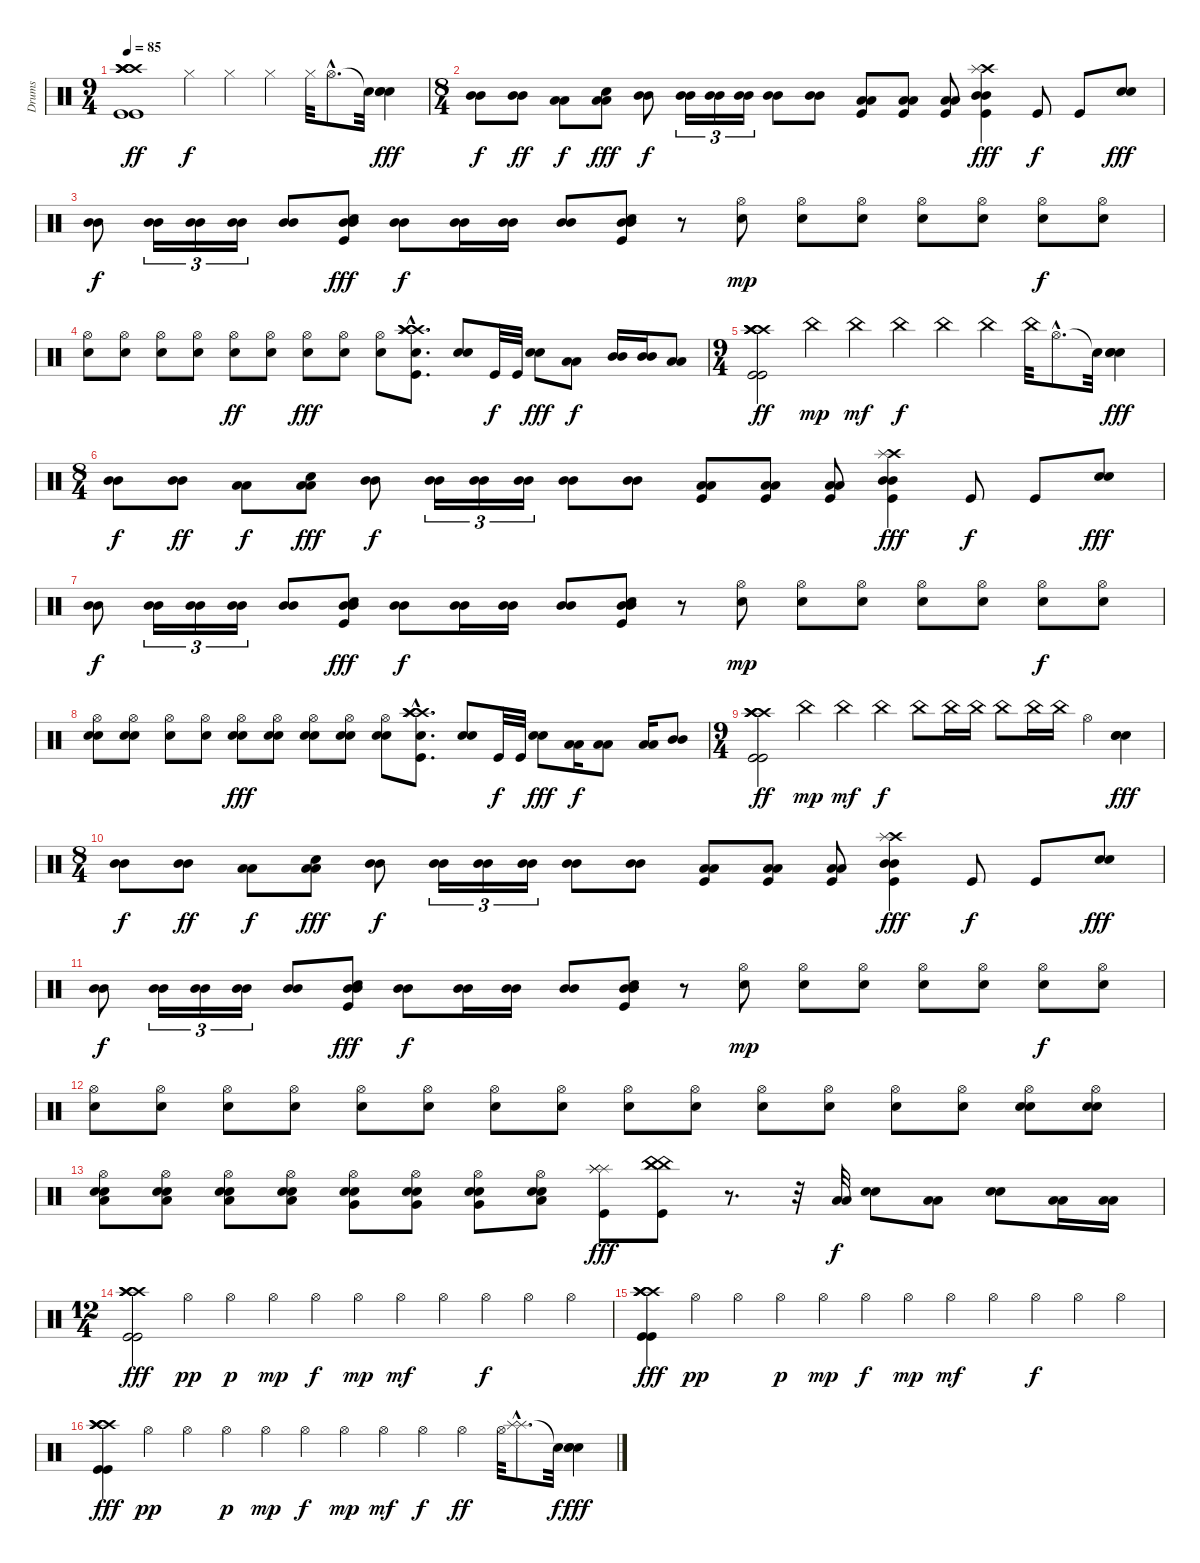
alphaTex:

\track ("Drums" "Drums") {instrument percussion}
\staff {score}
\articulation defaults
\ts (9 4)
\tempo 85
\clef neutral
\ks c
("Crash high (hit)" "Crash high (hit)" "Crash high (hit)" "Crash high (hit)" "Kick (hit)" "Kick (hit)").1{dy ff} "Hi-Hat (closed)".4{dy f} "Hi-Hat (closed)".4 "Hi-Hat (closed)".4 "Hi-Hat (closed)".32 "Hi-Hat (open)"{hac}.8{d} "Snare (hit)"{t}.32 ("Snare (hit) 2" "Electric Snare (hit)" "Electric Snare (hit)").4{dy fff} |
\ts (8 4)
("Mid Tom (hit)" "Mid Tom (hit)").8{dy f} ("Mid Tom (hit)" "Mid Tom (hit)").8{dy ff} ("Low Floor Tom (hit)" "Low Floor Tom (hit)").8{dy f} ("Low Floor Tom (hit)" "Low Floor Tom (hit)" "Electric Snare (hit)").8{dy fff} ("Mid Tom (hit)" "Mid Tom (hit)").8{dy f} ("Mid Tom (hit)" "Mid Tom (hit)").16{tu (3 2)} ("Mid Tom (hit)" "Mid Tom (hit)").16{tu (3 2)} ("Mid Tom (hit)" "Mid Tom (hit)").16{tu (3 2)} ("Mid Tom (hit)" "Mid Tom (hit)").8 ("Mid Tom (hit)" "Mid Tom (hit)").8 ("Low Floor Tom (hit)" "Low Floor Tom (hit)" "Kick (hit)").8 ("Low Floor Tom (hit)" "Low Floor Tom (hit)" "Kick (hit)").8 ("Low Floor Tom (hit)" "Low Floor Tom (hit)" "Kick (hit)").8 ("Mid Tom (hit)" "Mid Tom (hit)" "Crash high (hit)" "Splash (hit)" "Kick (hit)").4{dy fff} "Kick (hit)".8{dy f} "Kick (hit)".8 ("Electric Snare (hit)" "Electric Snare (hit)").8{dy fff} |
("Mid Tom (hit)" "Mid Tom (hit)").8{dy f} ("Mid Tom (hit)" "Mid Tom (hit)").16{tu (3 2)} ("Mid Tom (hit)" "Mid Tom (hit)").16{tu (3 2)} ("Mid Tom (hit)" "Mid Tom (hit)").16{tu (3 2)} ("Mid Tom (hit)" "Mid Tom (hit)").8 ("Mid Tom (hit)" "Mid Tom (hit)" "Electric Snare (hit)" "Kick (hit)").8{dy fff} ("Mid Tom (hit)" "Mid Tom (hit)").8{dy f} ("Mid Tom (hit)" "Mid Tom (hit)").16 ("Mid Tom (hit)" "Mid Tom (hit)").16 ("Mid Tom (hit)" "Mid Tom (hit)").8 ("Mid Tom (hit)" "Mid Tom (hit)" "Electric Snare (hit)" "Kick (hit)").8 r.8{volume 0} ("Hi-Hat (open)" "Electric Snare (hit)").8{dy mp volume 8} ("Hi-Hat (open)" "Electric Snare (hit)").8 ("Hi-Hat (open)" "Electric Snare (hit)").8 ("Hi-Hat (open)" "Electric Snare (hit)").8 ("Hi-Hat (open)" "Electric Snare (hit)").8 ("Hi-Hat (open)" "Electric Snare (hit)").8{dy f} ("Hi-Hat (open)" "Electric Snare (hit)").8 |
("Hi-Hat (open)" "Electric Snare (hit)").8{volume 16} ("Hi-Hat (open)" "Electric Snare (hit)").8 ("Hi-Hat (open)" "Electric Snare (hit)").8 ("Hi-Hat (open)" "Electric Snare (hit)").8 ("Hi-Hat (open)" "Electric Snare (hit)").8{dy ff} ("Hi-Hat (open)" "Electric Snare (hit)").8 ("Hi-Hat (open)" "Electric Snare (hit)").8{dy fff} ("Hi-Hat (open)" "Electric Snare (hit)").8 ("Hi-Hat (open)" "Electric Snare (hit)").8 ("Crash high (hit)"{hac} "Crash high (hit)"{hac} "Crash high (hit)"{hac} "Splash (hit)"{hac} "Electric Snare (hit)"{hac} "Kick (hit)"{hac}).8{d volume 16} ("Electric Snare (hit)" "Electric Snare (hit)").8{volume 13} "Kick (hit)".32{dy f} "Kick (hit)".32 ("Electric Snare (hit)" "Electric Snare (hit)").8{dy fff} ("Low Floor Tom (hit)" "Low Floor Tom (hit)").8{dy f} ("Mid Tom (hit)" "Mid Tom (hit)").16 ("Mid Tom (hit)" "Mid Tom (hit)").16 ("Low Floor Tom (hit)" "Low Floor Tom (hit)").8 |
\ts (9 4)
("Crash high (hit)" "Crash high (hit)" "Crash high (hit)" "Crash high (hit)" "Kick (hit)" "Kick (hit)").2{dy ff} "China (hit)".4{dy mp} "China (hit)".4{dy mf} "China (hit)".4{dy f} "China (hit)".4 "China (hit)".4 "China (hit)".32 "Hi-Hat (open)"{hac}.8{d} "Snare (hit)"{t}.32 ("Snare (hit) 2" "Electric Snare (hit)" "Electric Snare (hit)").4{dy fff} |
\ts (8 4)
("Mid Tom (hit)" "Mid Tom (hit)").8{dy f} ("Mid Tom (hit)" "Mid Tom (hit)").8{dy ff} ("Low Floor Tom (hit)" "Low Floor Tom (hit)").8{dy f} ("Low Floor Tom (hit)" "Low Floor Tom (hit)" "Electric Snare (hit)").8{dy fff} ("Mid Tom (hit)" "Mid Tom (hit)").8{dy f} ("Mid Tom (hit)" "Mid Tom (hit)").16{tu (3 2)} ("Mid Tom (hit)" "Mid Tom (hit)").16{tu (3 2)} ("Mid Tom (hit)" "Mid Tom (hit)").16{tu (3 2)} ("Mid Tom (hit)" "Mid Tom (hit)").8 ("Mid Tom (hit)" "Mid Tom (hit)").8 ("Low Floor Tom (hit)" "Low Floor Tom (hit)" "Kick (hit)").8 ("Low Floor Tom (hit)" "Low Floor Tom (hit)" "Kick (hit)").8 ("Low Floor Tom (hit)" "Low Floor Tom (hit)" "Kick (hit)").8 ("Mid Tom (hit)" "Mid Tom (hit)" "Crash high (hit)" "Splash (hit)" "Kick (hit)").4{dy fff} "Kick (hit)".8{dy f} "Kick (hit)".8 ("Electric Snare (hit)" "Electric Snare (hit)").8{dy fff} |
("Mid Tom (hit)" "Mid Tom (hit)").8{dy f} ("Mid Tom (hit)" "Mid Tom (hit)").16{tu (3 2)} ("Mid Tom (hit)" "Mid Tom (hit)").16{tu (3 2)} ("Mid Tom (hit)" "Mid Tom (hit)").16{tu (3 2)} ("Mid Tom (hit)" "Mid Tom (hit)").8 ("Mid Tom (hit)" "Mid Tom (hit)" "Electric Snare (hit)" "Kick (hit)").8{dy fff} ("Mid Tom (hit)" "Mid Tom (hit)").8{dy f} ("Mid Tom (hit)" "Mid Tom (hit)").16 ("Mid Tom (hit)" "Mid Tom (hit)").16 ("Mid Tom (hit)" "Mid Tom (hit)").8 ("Mid Tom (hit)" "Mid Tom (hit)" "Electric Snare (hit)" "Kick (hit)").8 r.8{volume 0} ("Hi-Hat (open)" "Electric Snare (hit)").8{dy mp volume 8} ("Hi-Hat (open)" "Electric Snare (hit)").8 ("Hi-Hat (open)" "Electric Snare (hit)").8 ("Hi-Hat (open)" "Electric Snare (hit)").8 ("Hi-Hat (open)" "Electric Snare (hit)").8 ("Hi-Hat (open)" "Electric Snare (hit)").8{dy f} ("Hi-Hat (open)" "Electric Snare (hit)").8 |
("Hi-Hat (open)" "Electric Snare (hit)" "Electric Snare (hit)").8{volume 16} ("Hi-Hat (open)" "Electric Snare (hit)" "Electric Snare (hit)").8 ("Hi-Hat (open)" "Electric Snare (hit)").8 ("Hi-Hat (open)" "Electric Snare (hit)").8 ("Hi-Hat (open)" "Electric Snare (hit)" "Electric Snare (hit)").8{dy fff} ("Hi-Hat (open)" "Electric Snare (hit)" "Electric Snare (hit)").8 ("Hi-Hat (open)" "Electric Snare (hit)" "Electric Snare (hit)").8 ("Hi-Hat (open)" "Electric Snare (hit)" "Electric Snare (hit)").8 ("Hi-Hat (open)" "Electric Snare (hit)" "Electric Snare (hit)").8 ("Crash high (hit)"{hac} "Crash high (hit)"{hac} "Crash high (hit)"{hac} "Splash (hit)"{hac} "Electric Snare (hit)"{hac} "Kick (hit)"{hac}).8{d volume 16} ("Electric Snare (hit)" "Electric Snare (hit)").8{volume 13} "Kick (hit)".32{dy f} "Kick (hit)".32 ("Electric Snare (hit)" "Electric Snare (hit)").8{dy fff} ("Low Floor Tom (hit)" "Low Floor Tom (hit)").16{dy f} ("Low Tom (hit)" "Low Tom (hit)").8 ("Low Floor Tom (hit)" "Low Floor Tom (hit)").16 ("Mid Tom (hit)" "Mid Tom (hit)").8 |
\ts (9 4)
("Crash high (hit)" "Crash high (hit)" "Crash high (hit)" "Crash high (hit)" "Kick (hit)" "Kick (hit)").2{dy ff} "China (hit)".4{dy mp} "China (hit)".4{dy mf} "China (hit)".4{dy f} "China (hit)".8 "China (hit)".16 "China (hit)".16 "China (hit)".8 "China (hit)".16 "China (hit)".16 "Hi-Hat (open)".4 ("Snare (hit) 2" "Electric Snare (hit)" "Electric Snare (hit)").4{dy fff} |
\ts (8 4)
("Mid Tom (hit)" "Mid Tom (hit)").8{dy f} ("Mid Tom (hit)" "Mid Tom (hit)").8{dy ff} ("Low Floor Tom (hit)" "Low Floor Tom (hit)").8{dy f} ("Low Floor Tom (hit)" "Low Floor Tom (hit)" "Electric Snare (hit)").8{dy fff} ("Mid Tom (hit)" "Mid Tom (hit)").8{dy f} ("Mid Tom (hit)" "Mid Tom (hit)").16{tu (3 2)} ("Mid Tom (hit)" "Mid Tom (hit)").16{tu (3 2)} ("Mid Tom (hit)" "Mid Tom (hit)").16{tu (3 2)} ("Mid Tom (hit)" "Mid Tom (hit)").8 ("Mid Tom (hit)" "Mid Tom (hit)").8 ("Low Floor Tom (hit)" "Low Floor Tom (hit)" "Kick (hit)").8 ("Low Floor Tom (hit)" "Low Floor Tom (hit)" "Kick (hit)").8 ("Low Floor Tom (hit)" "Low Floor Tom (hit)" "Kick (hit)").8 ("Mid Tom (hit)" "Mid Tom (hit)" "Crash high (hit)" "Splash (hit)" "Kick (hit)").4{dy fff} "Kick (hit)".8{dy f} "Kick (hit)".8 ("Electric Snare (hit)" "Electric Snare (hit)").8{dy fff} |
("Mid Tom (hit)" "Mid Tom (hit)").8{dy f} ("Mid Tom (hit)" "Mid Tom (hit)").16{tu (3 2)} ("Mid Tom (hit)" "Mid Tom (hit)").16{tu (3 2)} ("Mid Tom (hit)" "Mid Tom (hit)").16{tu (3 2)} ("Mid Tom (hit)" "Mid Tom (hit)").8 ("Mid Tom (hit)" "Mid Tom (hit)" "Electric Snare (hit)" "Kick (hit)").8{dy fff} ("Mid Tom (hit)" "Mid Tom (hit)").8{dy f} ("Mid Tom (hit)" "Mid Tom (hit)").16 ("Mid Tom (hit)" "Mid Tom (hit)").16 ("Mid Tom (hit)" "Mid Tom (hit)").8 ("Mid Tom (hit)" "Mid Tom (hit)" "Electric Snare (hit)" "Kick (hit)").8 r.8{volume 0} ("Hi-Hat (open)" "Electric Snare (hit)").8{dy mp volume 8} ("Hi-Hat (open)" "Electric Snare (hit)").8 ("Hi-Hat (open)" "Electric Snare (hit)").8 ("Hi-Hat (open)" "Electric Snare (hit)").8 ("Hi-Hat (open)" "Electric Snare (hit)").8 ("Hi-Hat (open)" "Electric Snare (hit)").8{dy f} ("Hi-Hat (open)" "Electric Snare (hit)").8 |
("Hi-Hat (open)" "Electric Snare (hit)").8 ("Hi-Hat (open)" "Electric Snare (hit)").8 ("Hi-Hat (open)" "Electric Snare (hit)").8 ("Hi-Hat (open)" "Electric Snare (hit)").8 ("Hi-Hat (open)" "Electric Snare (hit)").8 ("Hi-Hat (open)" "Electric Snare (hit)").8 ("Hi-Hat (open)" "Electric Snare (hit)").8{volume 16} ("Hi-Hat (open)" "Electric Snare (hit)").8 ("Hi-Hat (open)" "Electric Snare (hit)").8 ("Hi-Hat (open)" "Electric Snare (hit)").8 ("Hi-Hat (open)" "Electric Snare (hit)").8 ("Hi-Hat (open)" "Electric Snare (hit)").8 ("Hi-Hat (open)" "Electric Snare (hit)").8 ("Hi-Hat (open)" "Electric Snare (hit)").8 ("Hi-Hat (open)" "Electric Snare (hit)" "Electric Snare (hit)").8 ("Hi-Hat (open)" "Electric Snare (hit)" "Electric Snare (hit)").8 |
("Low Floor Tom (hit)" "Hi-Hat (open)" "Electric Snare (hit)" "Electric Snare (hit)").8 ("Low Floor Tom (hit)" "Hi-Hat (open)" "Electric Snare (hit)" "Electric Snare (hit)").8 ("Low Floor Tom (hit)" "Hi-Hat (open)" "Electric Snare (hit)" "Electric Snare (hit)").8 ("Low Floor Tom (hit)" "Hi-Hat (open)" "Electric Snare (hit)" "Electric Snare (hit)").8 ("Very Low Tom (hit)" "Hi-Hat (open)" "Electric Snare (hit)" "Electric Snare (hit)").8 ("Very Low Tom (hit)" "Hi-Hat (open)" "Electric Snare (hit)" "Electric Snare (hit)").8 ("Very Low Tom (hit)" "Hi-Hat (open)" "Electric Snare (hit)" "Electric Snare (hit)").8 ("Low Floor Tom (hit)" "Hi-Hat (open)" "Electric Snare (hit)" "Electric Snare (hit)").8 ("Splash (hit)" "Splash (hit)" "Splash (hit)" "Kick (hit)").8{dy fff} ("China (hit)" "China (hit)" "China (hit)" "Kick (hit)").8 r.8{d volume 13} r.32 ("Low Floor Tom (hit)" "Low Floor Tom (hit)").32{dy f} ("Electric Snare (hit)" "Electric Snare (hit)").8 ("Low Floor Tom (hit)" "Low Floor Tom (hit)").8 ("Electric Snare (hit)" "Electric Snare (hit)").8 ("Low Floor Tom (hit)" "Low Floor Tom (hit)").16 ("Low Floor Tom (hit)" "Low Floor Tom (hit)").16 |
\ts (12 4)
("Crash high (hit)" "Crash high (hit)" "Crash high (hit)" "Crash high (hit)" "Kick (hit)" "Kick (hit)").2{dy fff} "Hi-Hat (open)".4{dy pp} "Hi-Hat (open)".4{dy p} "Hi-Hat (open)".4{dy mp} "Hi-Hat (open)".4{dy f} "Hi-Hat (open)".4{dy mp} "Hi-Hat (open)".4{dy mf} "Hi-Hat (open)".4 "Hi-Hat (open)".4{dy f} "Hi-Hat (open)".4 "Hi-Hat (open)".4 |
("Crash high (hit)" "Crash high (hit)" "Crash high (hit)" "Crash high (hit)" "Kick (hit)" "Kick (hit)").4{dy fff} "Hi-Hat (open)".4{dy pp} "Hi-Hat (open)".4 "Hi-Hat (open)".4{dy p} "Hi-Hat (open)".4{dy mp} "Hi-Hat (open)".4{dy f} "Hi-Hat (open)".4{dy mp} "Hi-Hat (open)".4{dy mf} "Hi-Hat (open)".4 "Hi-Hat (open)".4{dy f} "Hi-Hat (open)".4 "Hi-Hat (open)".4 |
("Crash high (hit)" "Crash high (hit)" "Crash high (hit)" "Crash high (hit)" "Kick (hit)" "Kick (hit)").4{dy fff} "Hi-Hat (open)".4{dy pp} "Hi-Hat (open)".4 "Hi-Hat (open)".4{dy p} "Hi-Hat (open)".4{dy mp} "Hi-Hat (open)".4{dy f} "Hi-Hat (open)".4{dy mp} "Hi-Hat (open)".4{dy mf} "Hi-Hat (open)".4{dy f} "Hi-Hat (open)".4{dy ff} "Hi-Hat (open)".32 ("Splash (hit)"{hac} "Splash (hit)"{hac}).8{d} "Snare (hit)"{t}.32{dy f} ("Snare (hit) 2" "Electric Snare (hit)" "Electric Snare (hit)").4{dy fff}
